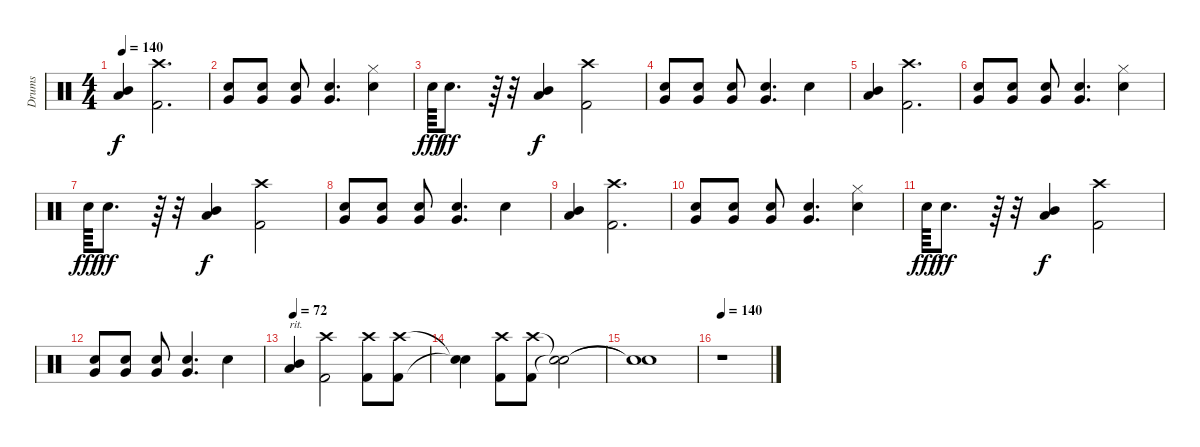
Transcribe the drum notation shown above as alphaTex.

\track ("Drums" "Drums") {instrument percussion}
\staff {score}
\articulation defaults
\ts (4 4)
\tempo 140
\clef neutral
\ks c
("Mid Tom (hit)" "Low Tom (hit)").4{dy f} ("Crash high (hit)" "Kick (hit) 2").2{d} |
("Very Low Tom (hit)" "Snare (hit) 2").8 ("Very Low Tom (hit)" "Snare (hit) 2").8 ("Very Low Tom (hit)" "Snare (hit) 2").8 ("Very Low Tom (hit)" "Snare (hit) 2").4{d} ("Hi-Hat (closed)" "Snare (hit) 2").4 |
"Snare (hit) 2".64{dy fff} "Snare (hit) 2".8{d dy ff} r.64 r.32 ("Mid Tom (hit)" "Low Tom (hit)").4{dy f} ("Crash high (hit)" "Kick (hit) 2").2 |
("Very Low Tom (hit)" "Snare (hit) 2").8 ("Very Low Tom (hit)" "Snare (hit) 2").8 ("Very Low Tom (hit)" "Snare (hit) 2").8 ("Very Low Tom (hit)" "Snare (hit) 2").4{d} "Snare (hit) 2".4 |
("Mid Tom (hit)" "Low Tom (hit)").4 ("Crash high (hit)" "Kick (hit) 2").2{d} |
("Very Low Tom (hit)" "Snare (hit) 2").8 ("Very Low Tom (hit)" "Snare (hit) 2").8 ("Very Low Tom (hit)" "Snare (hit) 2").8 ("Very Low Tom (hit)" "Snare (hit) 2").4{d} ("Hi-Hat (closed)" "Snare (hit) 2").4 |
"Snare (hit) 2".64{dy fff} "Snare (hit) 2".8{d dy ff} r.64 r.32 ("Mid Tom (hit)" "Low Tom (hit)").4{dy f} ("Crash high (hit)" "Kick (hit) 2").2 |
("Very Low Tom (hit)" "Snare (hit) 2").8 ("Very Low Tom (hit)" "Snare (hit) 2").8 ("Very Low Tom (hit)" "Snare (hit) 2").8 ("Very Low Tom (hit)" "Snare (hit) 2").4{d} "Snare (hit) 2".4 |
("Mid Tom (hit)" "Low Tom (hit)").4 ("Crash high (hit)" "Kick (hit) 2").2{d} |
("Very Low Tom (hit)" "Snare (hit) 2").8 ("Very Low Tom (hit)" "Snare (hit) 2").8 ("Very Low Tom (hit)" "Snare (hit) 2").8 ("Very Low Tom (hit)" "Snare (hit) 2").4{d} ("Hi-Hat (closed)" "Snare (hit) 2").4 |
"Snare (hit) 2".64{dy fff} "Snare (hit) 2".8{d dy ff} r.64 r.32 ("Mid Tom (hit)" "Low Tom (hit)").4{dy f} ("Crash high (hit)" "Kick (hit) 2").2 |
("Very Low Tom (hit)" "Snare (hit) 2").8 ("Very Low Tom (hit)" "Snare (hit) 2").8 ("Very Low Tom (hit)" "Snare (hit) 2").8 ("Very Low Tom (hit)" "Snare (hit) 2").4{d} "Snare (hit) 2".4 |
\tempo 72
("Mid Tom (hit)" "Low Tom (hit)").4{txt "rit."} ("Crash high (hit)" "Kick (hit) 2").2 ("Crash high (hit)" "Kick (hit) 2").8 ("Crash high (hit)" "Kick (hit) 2").8 |
("Snare (hit)"{t} "Snare (hit)"{t}).4 ("Crash high (hit)" "Kick (hit) 2").8 ("Crash high (hit)" "Kick (hit) 2").8 ("Snare (hit)"{t} "Snare (hit)"{t}).2 |
("Snare (hit)"{t} "Snare (hit)"{t}).1 |
\tempo 140
r.1
